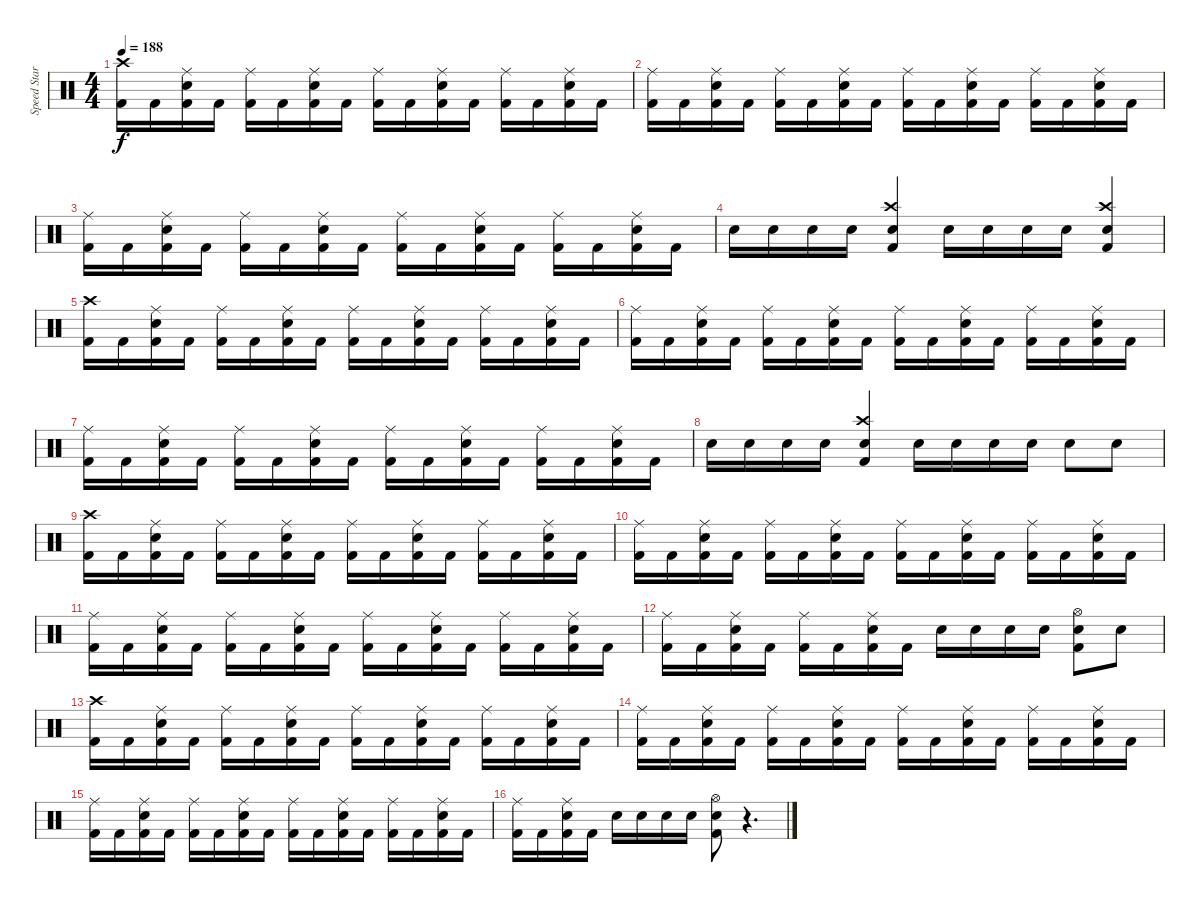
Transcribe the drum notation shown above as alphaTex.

\track ("Speed Star Sypan Joe" "Speed Star") {instrument percussion}
\staff {score}
\articulation defaults
\ts (4 4)
\tempo 188
\clef neutral
\ks c
("Kick (hit) 2" "Crash high (hit)").16{dy f} "Kick (hit) 2".16 ("Kick (hit) 2" "Electric Snare (hit)" "Ride (middle)").16 "Kick (hit) 2".16 ("Kick (hit) 2" "Ride (middle)").16 "Kick (hit) 2".16 ("Kick (hit) 2" "Electric Snare (hit)" "Ride (middle)").16 "Kick (hit) 2".16 ("Kick (hit) 2" "Ride (middle)").16 "Kick (hit) 2".16 ("Kick (hit) 2" "Electric Snare (hit)" "Ride (middle)").16 "Kick (hit) 2".16 ("Kick (hit) 2" "Ride (middle)").16 "Kick (hit) 2".16 ("Kick (hit) 2" "Electric Snare (hit)" "Ride (middle)").16 "Kick (hit) 2".16 |
("Kick (hit) 2" "Ride (middle)").16 "Kick (hit) 2".16 ("Kick (hit) 2" "Electric Snare (hit)" "Ride (middle)").16 "Kick (hit) 2".16 ("Kick (hit) 2" "Ride (middle)").16 "Kick (hit) 2".16 ("Kick (hit) 2" "Electric Snare (hit)" "Ride (middle)").16 "Kick (hit) 2".16 ("Kick (hit) 2" "Ride (middle)").16 "Kick (hit) 2".16 ("Kick (hit) 2" "Electric Snare (hit)" "Ride (middle)").16 "Kick (hit) 2".16 ("Kick (hit) 2" "Ride (middle)").16 "Kick (hit) 2".16 ("Kick (hit) 2" "Electric Snare (hit)" "Ride (middle)").16 "Kick (hit) 2".16 |
("Kick (hit) 2" "Ride (middle)").16 "Kick (hit) 2".16 ("Kick (hit) 2" "Electric Snare (hit)" "Ride (middle)").16 "Kick (hit) 2".16 ("Kick (hit) 2" "Ride (middle)").16 "Kick (hit) 2".16 ("Kick (hit) 2" "Electric Snare (hit)" "Ride (middle)").16 "Kick (hit) 2".16 ("Kick (hit) 2" "Ride (middle)").16 "Kick (hit) 2".16 ("Kick (hit) 2" "Electric Snare (hit)" "Ride (middle)").16 "Kick (hit) 2".16 ("Kick (hit) 2" "Ride (middle)").16 "Kick (hit) 2".16 ("Kick (hit) 2" "Electric Snare (hit)" "Ride (middle)").16 "Kick (hit) 2".16 |
"Electric Snare (hit)".16 "Electric Snare (hit)".16 "Electric Snare (hit)".16 "Electric Snare (hit)".16 ("Electric Snare (hit)" "Kick (hit) 2" "Crash high (hit)").4 "Electric Snare (hit)".16 "Electric Snare (hit)".16 "Electric Snare (hit)".16 "Electric Snare (hit)".16 ("Electric Snare (hit)" "Kick (hit) 2" "Crash high (hit)").4 |
("Kick (hit) 2" "Crash high (hit)").16 "Kick (hit) 2".16 ("Kick (hit) 2" "Electric Snare (hit)" "Ride (middle)").16 "Kick (hit) 2".16 ("Kick (hit) 2" "Ride (middle)").16 "Kick (hit) 2".16 ("Kick (hit) 2" "Electric Snare (hit)" "Ride (middle)").16 "Kick (hit) 2".16 ("Kick (hit) 2" "Ride (middle)").16 "Kick (hit) 2".16 ("Kick (hit) 2" "Electric Snare (hit)" "Ride (middle)").16 "Kick (hit) 2".16 ("Kick (hit) 2" "Ride (middle)").16 "Kick (hit) 2".16 ("Kick (hit) 2" "Electric Snare (hit)" "Ride (middle)").16 "Kick (hit) 2".16 |
("Kick (hit) 2" "Ride (middle)").16 "Kick (hit) 2".16 ("Kick (hit) 2" "Electric Snare (hit)" "Ride (middle)").16 "Kick (hit) 2".16 ("Kick (hit) 2" "Ride (middle)").16 "Kick (hit) 2".16 ("Kick (hit) 2" "Electric Snare (hit)" "Ride (middle)").16 "Kick (hit) 2".16 ("Kick (hit) 2" "Ride (middle)").16 "Kick (hit) 2".16 ("Kick (hit) 2" "Electric Snare (hit)" "Ride (middle)").16 "Kick (hit) 2".16 ("Kick (hit) 2" "Ride (middle)").16 "Kick (hit) 2".16 ("Kick (hit) 2" "Electric Snare (hit)" "Ride (middle)").16 "Kick (hit) 2".16 |
("Kick (hit) 2" "Ride (middle)").16 "Kick (hit) 2".16 ("Kick (hit) 2" "Electric Snare (hit)" "Ride (middle)").16 "Kick (hit) 2".16 ("Kick (hit) 2" "Ride (middle)").16 "Kick (hit) 2".16 ("Kick (hit) 2" "Electric Snare (hit)" "Ride (middle)").16 "Kick (hit) 2".16 ("Kick (hit) 2" "Ride (middle)").16 "Kick (hit) 2".16 ("Kick (hit) 2" "Electric Snare (hit)" "Ride (middle)").16 "Kick (hit) 2".16 ("Kick (hit) 2" "Ride (middle)").16 "Kick (hit) 2".16 ("Kick (hit) 2" "Electric Snare (hit)" "Ride (middle)").16 "Kick (hit) 2".16 |
"Electric Snare (hit)".16 "Electric Snare (hit)".16 "Electric Snare (hit)".16 "Electric Snare (hit)".16 ("Electric Snare (hit)" "Kick (hit) 2" "Crash high (hit)").4 "Electric Snare (hit)".16 "Electric Snare (hit)".16 "Electric Snare (hit)".16 "Electric Snare (hit)".16 "Electric Snare (hit)".8 "Electric Snare (hit)".8 |
("Kick (hit) 2" "Crash high (hit)").16 "Kick (hit) 2".16 ("Kick (hit) 2" "Electric Snare (hit)" "Ride (middle)").16 "Kick (hit) 2".16 ("Kick (hit) 2" "Ride (middle)").16 "Kick (hit) 2".16 ("Kick (hit) 2" "Electric Snare (hit)" "Ride (middle)").16 "Kick (hit) 2".16 ("Kick (hit) 2" "Ride (middle)").16 "Kick (hit) 2".16 ("Kick (hit) 2" "Electric Snare (hit)" "Ride (middle)").16 "Kick (hit) 2".16 ("Kick (hit) 2" "Ride (middle)").16 "Kick (hit) 2".16 ("Kick (hit) 2" "Electric Snare (hit)" "Ride (middle)").16 "Kick (hit) 2".16 |
("Kick (hit) 2" "Ride (middle)").16 "Kick (hit) 2".16 ("Kick (hit) 2" "Electric Snare (hit)" "Ride (middle)").16 "Kick (hit) 2".16 ("Kick (hit) 2" "Ride (middle)").16 "Kick (hit) 2".16 ("Kick (hit) 2" "Electric Snare (hit)" "Ride (middle)").16 "Kick (hit) 2".16 ("Kick (hit) 2" "Ride (middle)").16 "Kick (hit) 2".16 ("Kick (hit) 2" "Electric Snare (hit)" "Ride (middle)").16 "Kick (hit) 2".16 ("Kick (hit) 2" "Ride (middle)").16 "Kick (hit) 2".16 ("Kick (hit) 2" "Electric Snare (hit)" "Ride (middle)").16 "Kick (hit) 2".16 |
("Kick (hit) 2" "Ride (middle)").16 "Kick (hit) 2".16 ("Kick (hit) 2" "Electric Snare (hit)" "Ride (middle)").16 "Kick (hit) 2".16 ("Kick (hit) 2" "Ride (middle)").16 "Kick (hit) 2".16 ("Kick (hit) 2" "Electric Snare (hit)" "Ride (middle)").16 "Kick (hit) 2".16 ("Kick (hit) 2" "Ride (middle)").16 "Kick (hit) 2".16 ("Kick (hit) 2" "Electric Snare (hit)" "Ride (middle)").16 "Kick (hit) 2".16 ("Kick (hit) 2" "Ride (middle)").16 "Kick (hit) 2".16 ("Kick (hit) 2" "Electric Snare (hit)" "Ride (middle)").16 "Kick (hit) 2".16 |
("Kick (hit) 2" "Ride (middle)").16 "Kick (hit) 2".16 ("Kick (hit) 2" "Electric Snare (hit)" "Ride (middle)").16 "Kick (hit) 2".16 ("Kick (hit) 2" "Ride (middle)").16 "Kick (hit) 2".16 ("Kick (hit) 2" "Electric Snare (hit)" "Ride (middle)").16 "Kick (hit) 2".16 "Electric Snare (hit)".16 "Electric Snare (hit)".16 "Electric Snare (hit)".16 "Electric Snare (hit)".16 ("Electric Snare (hit)" "Kick (hit) 2" "Hi-Hat (open)").8 "Electric Snare (hit)".8 |
("Kick (hit) 2" "Crash high (hit)").16 "Kick (hit) 2".16 ("Kick (hit) 2" "Electric Snare (hit)" "Ride (middle)").16 "Kick (hit) 2".16 ("Kick (hit) 2" "Ride (middle)").16 "Kick (hit) 2".16 ("Kick (hit) 2" "Electric Snare (hit)" "Ride (middle)").16 "Kick (hit) 2".16 ("Kick (hit) 2" "Ride (middle)").16 "Kick (hit) 2".16 ("Kick (hit) 2" "Electric Snare (hit)" "Ride (middle)").16 "Kick (hit) 2".16 ("Kick (hit) 2" "Ride (middle)").16 "Kick (hit) 2".16 ("Kick (hit) 2" "Electric Snare (hit)" "Ride (middle)").16 "Kick (hit) 2".16 |
("Kick (hit) 2" "Ride (middle)").16 "Kick (hit) 2".16 ("Kick (hit) 2" "Electric Snare (hit)" "Ride (middle)").16 "Kick (hit) 2".16 ("Kick (hit) 2" "Ride (middle)").16 "Kick (hit) 2".16 ("Kick (hit) 2" "Electric Snare (hit)" "Ride (middle)").16 "Kick (hit) 2".16 ("Kick (hit) 2" "Ride (middle)").16 "Kick (hit) 2".16 ("Kick (hit) 2" "Electric Snare (hit)" "Ride (middle)").16 "Kick (hit) 2".16 ("Kick (hit) 2" "Ride (middle)").16 "Kick (hit) 2".16 ("Kick (hit) 2" "Electric Snare (hit)" "Ride (middle)").16 "Kick (hit) 2".16 |
("Kick (hit) 2" "Ride (middle)").16 "Kick (hit) 2".16 ("Kick (hit) 2" "Electric Snare (hit)" "Ride (middle)").16 "Kick (hit) 2".16 ("Kick (hit) 2" "Ride (middle)").16 "Kick (hit) 2".16 ("Kick (hit) 2" "Electric Snare (hit)" "Ride (middle)").16 "Kick (hit) 2".16 ("Kick (hit) 2" "Ride (middle)").16 "Kick (hit) 2".16 ("Kick (hit) 2" "Electric Snare (hit)" "Ride (middle)").16 "Kick (hit) 2".16 ("Kick (hit) 2" "Ride (middle)").16 "Kick (hit) 2".16 ("Kick (hit) 2" "Electric Snare (hit)" "Ride (middle)").16 "Kick (hit) 2".16 |
("Kick (hit) 2" "Ride (middle)").16 "Kick (hit) 2".16 ("Kick (hit) 2" "Electric Snare (hit)" "Ride (middle)").16 "Kick (hit) 2".16 "Electric Snare (hit)".16 "Electric Snare (hit)".16 "Electric Snare (hit)".16 "Electric Snare (hit)".16 ("Electric Snare (hit)" "Kick (hit) 2" "Hi-Hat (open)").8 r.4{d}
